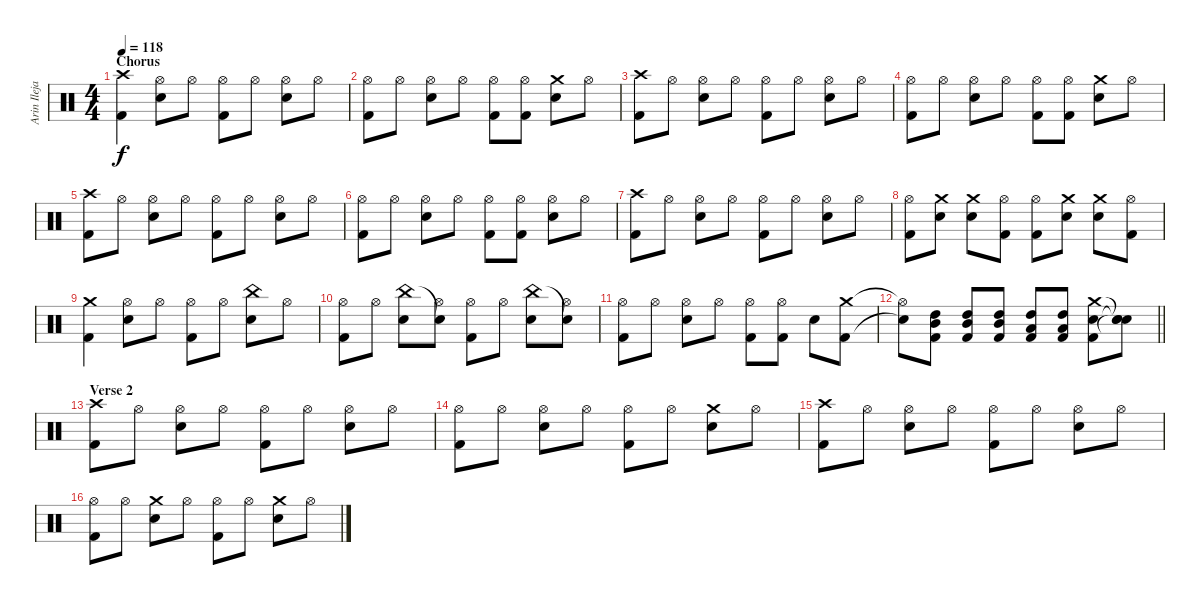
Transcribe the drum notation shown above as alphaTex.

\track ("Arin Ilejay" "Arin Ileja") {instrument percussion bank 164}
\staff {score}
\articulation defaults
\ts (4 4)
\section ("" "Chorus")
\tempo 118
\clef neutral
\ks c
("Crash high (hit)" "Kick (hit) 2").4{dy f} ("Hi-Hat (open)" "Electric Snare (hit)").8 "Hi-Hat (open)".8 ("Hi-Hat (open)" "Kick (hit) 2").8 "Hi-Hat (open)".8 ("Hi-Hat (open)" "Electric Snare (hit)").8 "Hi-Hat (open)".8 |
("Hi-Hat (open)" "Kick (hit) 2").8 "Hi-Hat (open)".8 ("Hi-Hat (open)" "Electric Snare (hit)").8 "Hi-Hat (open)".8 ("Hi-Hat (open)" "Kick (hit) 2").8 ("Hi-Hat (open)" "Kick (hit) 2").8 ("Crash medium (hit)" "Electric Snare (hit)").8 "Hi-Hat (open)".8 |
("Crash high (hit)" "Kick (hit) 2").8 "Hi-Hat (open)".8 ("Hi-Hat (open)" "Electric Snare (hit)").8 "Hi-Hat (open)".8 ("Hi-Hat (open)" "Kick (hit) 2").8 "Hi-Hat (open)".8 ("Hi-Hat (open)" "Electric Snare (hit)").8 "Hi-Hat (open)".8 |
("Hi-Hat (open)" "Kick (hit) 2").8 "Hi-Hat (open)".8 ("Hi-Hat (open)" "Electric Snare (hit)").8 "Hi-Hat (open)".8 ("Hi-Hat (open)" "Kick (hit) 2").8 ("Hi-Hat (open)" "Kick (hit) 2").8 ("Crash medium (hit)" "Electric Snare (hit)").8 "Hi-Hat (open)".8 |
("Crash high (hit)" "Kick (hit) 2").8 "Hi-Hat (open)".8 ("Hi-Hat (open)" "Electric Snare (hit)").8 "Hi-Hat (open)".8 ("Hi-Hat (open)" "Kick (hit) 2").8 "Hi-Hat (open)".8 ("Hi-Hat (open)" "Electric Snare (hit)").8 "Hi-Hat (open)".8 |
("Hi-Hat (open)" "Kick (hit) 2").8 "Hi-Hat (open)".8 ("Hi-Hat (open)" "Electric Snare (hit)").8 "Hi-Hat (open)".8 ("Hi-Hat (open)" "Kick (hit) 2").8 ("Hi-Hat (open)" "Kick (hit) 2").8 ("Hi-Hat (open)" "Electric Snare (hit)").8 "Hi-Hat (open)".8 |
("Crash high (hit)" "Kick (hit) 2").8 "Hi-Hat (open)".8 ("Hi-Hat (open)" "Electric Snare (hit)").8 "Hi-Hat (open)".8 ("Hi-Hat (open)" "Kick (hit) 2").8 "Hi-Hat (open)".8 ("Hi-Hat (open)" "Electric Snare (hit)").8 "Hi-Hat (open)".8 |
("Hi-Hat (open)" "Kick (hit) 2").8 ("Crash medium (hit)" "Electric Snare (hit)").8 ("Crash medium (hit)" "Electric Snare (hit)").8 ("Hi-Hat (open)" "Kick (hit) 2").8 ("Hi-Hat (open)" "Kick (hit) 2").8 ("Crash medium (hit)" "Electric Snare (hit)").8 ("Crash medium (hit)" "Electric Snare (hit)").8 ("Hi-Hat (open)" "Kick (hit) 2").8 |
("Crash medium (hit)" "Kick (hit) 2").4 ("Hi-Hat (open)" "Electric Snare (hit)").8 "Hi-Hat (open)".8 ("Hi-Hat (open)" "Kick (hit) 2").8 "Hi-Hat (open)".8 ("China (hit)" "Electric Snare (hit)").8 "Hi-Hat (open)".8 |
("Hi-Hat (open)" "Kick (hit) 2").8 "Hi-Hat (open)".8 ("China (hit)" "Electric Snare (hit)").8 ("Snare (hit)"{t} "Hi-Hat (open)").8 ("Hi-Hat (open)" "Kick (hit) 2").8 "Hi-Hat (open)".8 ("China (hit)" "Electric Snare (hit)").8 ("Snare (hit)"{t} "Hi-Hat (open)").8 |
("Hi-Hat (open)" "Kick (hit) 2").8 "Hi-Hat (open)".8 ("Hi-Hat (open)" "Electric Snare (hit)").8 "Hi-Hat (open)".8 ("Hi-Hat (open)" "Kick (hit) 2").8 ("Hi-Hat (open)" "Kick (hit) 2").8 "Electric Snare (hit)".8 ("Crash medium (hit)" "Kick (hit) 2").8 |
\barLineRight lightlight
("Hi-Hat (open)"{t} "Snare (hit)"{t}).8 ("Mid Tom (hit)" "High Tom (hit)" "Kick (hit) 2").8 ("Mid Tom (hit)" "High Tom (hit)" "Kick (hit) 2").8 ("Mid Tom (hit)" "High Tom (hit)" "Kick (hit) 2").8 ("Low Tom (hit)" "High Tom (hit)" "Kick (hit) 2").8 ("Low Tom (hit)" "High Tom (hit)" "Kick (hit) 2").8 ("Crash medium (hit)" "Electric Snare (hit)" "Kick (hit) 2").8 ("Snare (hit)"{t} "Snare (hit)"{t} "Snare (hit)"{t}).8 |
\section ("" "Verse 2")
("Crash high (hit)" "Kick (hit) 2").8 "Hi-Hat (open)".8 ("Hi-Hat (open)" "Electric Snare (hit)").8 "Hi-Hat (open)".8 ("Hi-Hat (open)" "Kick (hit) 2").8 "Hi-Hat (open)".8 ("Hi-Hat (open)" "Electric Snare (hit)").8 "Hi-Hat (open)".8 |
("Hi-Hat (open)" "Kick (hit) 2").8 "Hi-Hat (open)".8 ("Hi-Hat (open)" "Electric Snare (hit)").8 "Hi-Hat (open)".8 ("Hi-Hat (open)" "Kick (hit) 2").8 "Hi-Hat (open)".8 ("Crash medium (hit)" "Electric Snare (hit)").8 "Hi-Hat (open)".8 |
("Crash high (hit)" "Kick (hit) 2").8 "Hi-Hat (open)".8 ("Hi-Hat (open)" "Electric Snare (hit)").8 "Hi-Hat (open)".8 ("Hi-Hat (open)" "Kick (hit) 2").8 "Hi-Hat (open)".8 ("Hi-Hat (open)" "Electric Snare (hit)").8 "Hi-Hat (open)".8 |
("Hi-Hat (open)" "Kick (hit) 2").8 "Hi-Hat (open)".8 ("Crash medium (hit)" "Electric Snare (hit)").8 "Hi-Hat (open)".8 ("Hi-Hat (open)" "Kick (hit) 2").8 "Hi-Hat (open)".8 ("Crash medium (hit)" "Electric Snare (hit)").8 "Hi-Hat (open)".8
